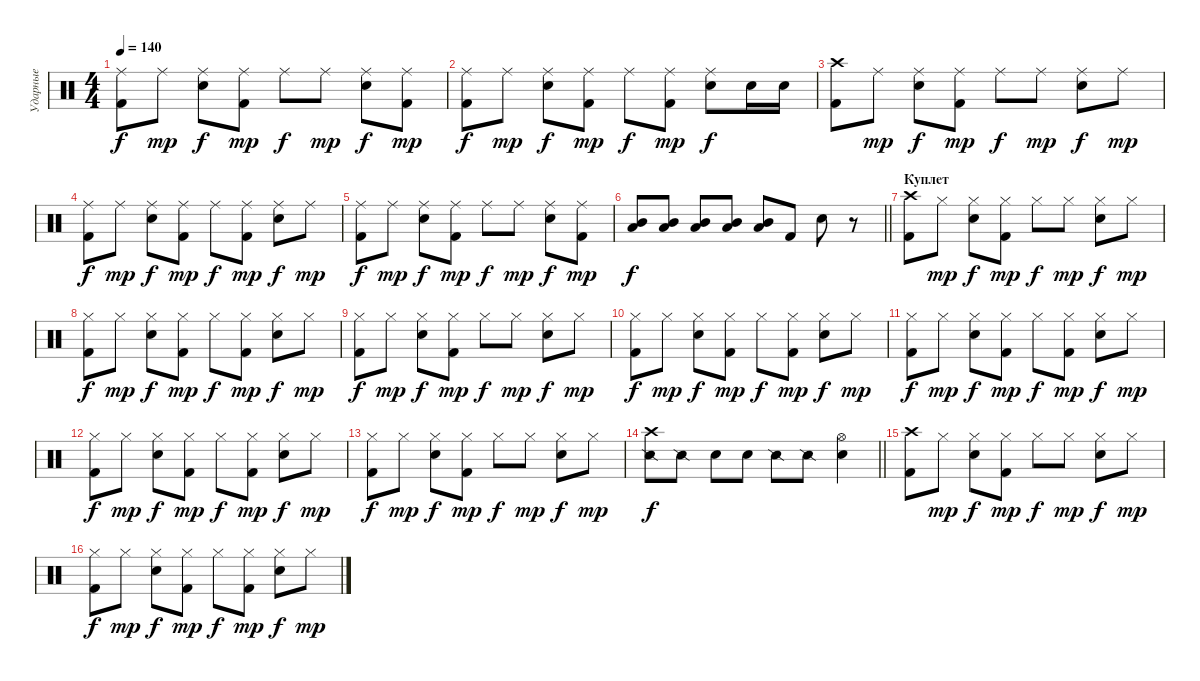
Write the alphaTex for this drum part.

\track ("Ударные" "Ударные") {instrument percussion}
\staff {score}
\articulation defaults
\ts (4 4)
\tempo 140
\clef neutral
\ks c
("Ride (middle)" "Kick (hit) 2").8{dy f} "Ride (middle)".8{dy mp} ("Ride (middle)" "Snare (hit) 2").8{dy f} ("Ride (middle)" "Kick (hit) 2").8{dy mp} "Ride (middle)".8{dy f} "Ride (middle)".8{dy mp} ("Ride (middle)" "Snare (hit) 2").8{dy f} ("Ride (middle)" "Kick (hit) 2").8{dy mp} |
("Ride (middle)" "Kick (hit) 2").8{dy f} "Ride (middle)".8{dy mp} ("Ride (middle)" "Snare (hit) 2").8{dy f} ("Ride (middle)" "Kick (hit) 2").8{dy mp} "Ride (middle)".8{dy f} ("Ride (middle)" "Kick (hit) 2").8{dy mp} ("Ride (middle)" "Snare (hit) 2").8{dy f} "Snare (hit) 2".16 "Snare (hit) 2".16 |
("Crash high (hit)" "Kick (hit) 2").8 "Ride (middle)".8{dy mp} ("Ride (middle)" "Snare (hit) 2").8{dy f} ("Ride (middle)" "Kick (hit) 2").8{dy mp} "Ride (middle)".8{dy f} "Ride (middle)".8{dy mp} ("Ride (middle)" "Snare (hit) 2").8{dy f} "Ride (middle)".8{dy mp} |
("Ride (middle)" "Kick (hit) 2").8{dy f} "Ride (middle)".8{dy mp} ("Ride (middle)" "Snare (hit) 2").8{dy f} ("Ride (middle)" "Kick (hit) 2").8{dy mp} "Ride (middle)".8{dy f} ("Ride (middle)" "Kick (hit) 2").8{dy mp} ("Ride (middle)" "Snare (hit) 2").8{dy f} "Ride (middle)".8{dy mp} |
("Ride (middle)" "Kick (hit) 2").8{dy f} "Ride (middle)".8{dy mp} ("Ride (middle)" "Snare (hit) 2").8{dy f} ("Ride (middle)" "Kick (hit) 2").8{dy mp} "Ride (middle)".8{dy f} "Ride (middle)".8{dy mp} ("Ride (middle)" "Snare (hit) 2").8{dy f} ("Ride (middle)" "Kick (hit) 2").8{dy mp} |
\barLineRight lightlight
("Low Tom (hit)" "Mid Tom (hit)").8{dy f} ("Low Tom (hit)" "Mid Tom (hit)").8 ("Low Tom (hit)" "Mid Tom (hit)").8 ("Low Tom (hit)" "Mid Tom (hit)").8 ("Low Tom (hit)" "Mid Tom (hit)").8 "Kick (hit) 2".8 "Snare (hit) 2".8 r.8 |
\section ("" "Куплет")
("Crash high (hit)" "Kick (hit) 2").8 "Hi-Hat (closed)".8{dy mp} ("Hi-Hat (closed)" "Snare (hit) 2").8{dy f} ("Hi-Hat (closed)" "Kick (hit) 2").8{dy mp} "Hi-Hat (closed)".8{dy f} "Hi-Hat (closed)".8{dy mp} ("Hi-Hat (closed)" "Snare (hit) 2").8{dy f} "Hi-Hat (closed)".8{dy mp} |
("Hi-Hat (closed)" "Kick (hit) 2").8{dy f} "Hi-Hat (closed)".8{dy mp} ("Hi-Hat (closed)" "Snare (hit) 2").8{dy f} ("Hi-Hat (closed)" "Kick (hit) 2").8{dy mp} "Hi-Hat (closed)".8{dy f} ("Hi-Hat (closed)" "Kick (hit) 2").8{dy mp} ("Hi-Hat (closed)" "Snare (hit) 2").8{dy f} "Hi-Hat (closed)".8{dy mp} |
("Hi-Hat (closed)" "Kick (hit) 2").8{dy f} "Hi-Hat (closed)".8{dy mp} ("Hi-Hat (closed)" "Snare (hit) 2").8{dy f} ("Hi-Hat (closed)" "Kick (hit) 2").8{dy mp} "Hi-Hat (closed)".8{dy f} "Hi-Hat (closed)".8{dy mp} ("Hi-Hat (closed)" "Snare (hit) 2").8{dy f} "Hi-Hat (closed)".8{dy mp} |
("Hi-Hat (closed)" "Kick (hit) 2").8{dy f} "Hi-Hat (closed)".8{dy mp} ("Hi-Hat (closed)" "Snare (hit) 2").8{dy f} ("Hi-Hat (closed)" "Kick (hit) 2").8{dy mp} "Hi-Hat (closed)".8{dy f} ("Hi-Hat (closed)" "Kick (hit) 2").8{dy mp} ("Hi-Hat (closed)" "Snare (hit) 2").8{dy f} "Hi-Hat (closed)".8{dy mp} |
("Hi-Hat (closed)" "Kick (hit) 2").8{dy f} "Hi-Hat (closed)".8{dy mp} ("Hi-Hat (closed)" "Snare (hit) 2").8{dy f} ("Hi-Hat (closed)" "Kick (hit) 2").8{dy mp} "Hi-Hat (closed)".8{dy f} ("Hi-Hat (closed)" "Kick (hit) 2").8{dy mp} ("Hi-Hat (closed)" "Snare (hit) 2").8{dy f} "Hi-Hat (closed)".8{dy mp} |
("Hi-Hat (closed)" "Kick (hit) 2").8{dy f} "Hi-Hat (closed)".8{dy mp} ("Hi-Hat (closed)" "Snare (hit) 2").8{dy f} ("Hi-Hat (closed)" "Kick (hit) 2").8{dy mp} "Hi-Hat (closed)".8{dy f} ("Hi-Hat (closed)" "Kick (hit) 2").8{dy mp} ("Hi-Hat (closed)" "Snare (hit) 2").8{dy f} "Hi-Hat (closed)".8{dy mp} |
("Hi-Hat (closed)" "Kick (hit) 2").8{dy f} "Hi-Hat (closed)".8{dy mp} ("Hi-Hat (closed)" "Snare (hit) 2").8{dy f} ("Hi-Hat (closed)" "Kick (hit) 2").8{dy mp} "Hi-Hat (closed)".8{dy f} "Hi-Hat (closed)".8{dy mp} ("Hi-Hat (closed)" "Snare (hit) 2").8{dy f} "Hi-Hat (closed)".8{dy mp} |
\barLineRight lightlight
("Snare (side stick) 2" "Crash high (hit)").8{dy f} "Snare (side stick) 2".8 "Hand Clap (hit)".8 "Hand Clap (hit)".8 "Snare (side stick) 2".8 "Snare (side stick) 2".8 ("Snare (hit) 2" "Hi-Hat (open)").4 |
\section ("" "")
("Crash high (hit)" "Kick (hit) 2").8 "Hi-Hat (closed)".8{dy mp} ("Hi-Hat (closed)" "Snare (hit) 2").8{dy f} ("Hi-Hat (closed)" "Kick (hit) 2").8{dy mp} "Hi-Hat (closed)".8{dy f} "Hi-Hat (closed)".8{dy mp} ("Hi-Hat (closed)" "Snare (hit) 2").8{dy f} "Hi-Hat (closed)".8{dy mp} |
("Hi-Hat (closed)" "Kick (hit) 2").8{dy f} "Hi-Hat (closed)".8{dy mp} ("Hi-Hat (closed)" "Snare (hit) 2").8{dy f} ("Hi-Hat (closed)" "Kick (hit) 2").8{dy mp} "Hi-Hat (closed)".8{dy f} ("Hi-Hat (closed)" "Kick (hit) 2").8{dy mp} ("Hi-Hat (closed)" "Snare (hit) 2").8{dy f} "Hi-Hat (closed)".8{dy mp}
